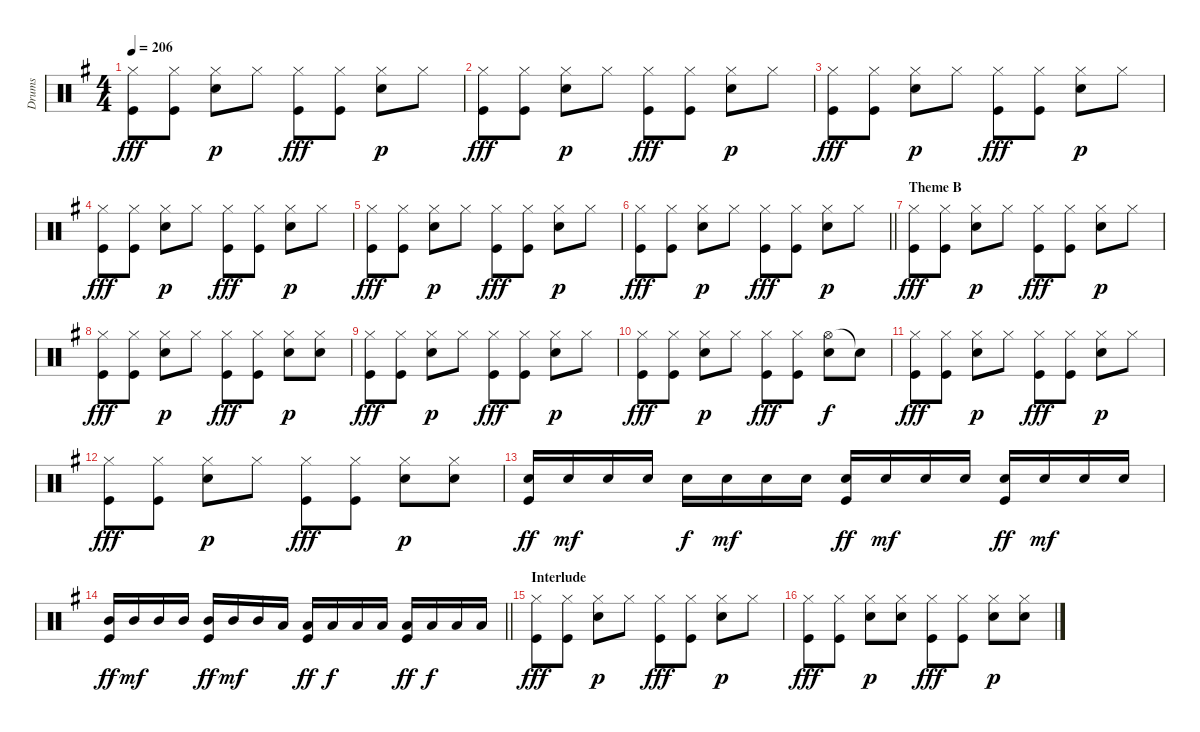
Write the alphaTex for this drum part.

\track ("Drums" "Drums") {instrument percussion}
\staff {score}
\articulation defaults
\ts (4 4)
\tempo 206
\clef neutral
\ks g
("Hi-Hat (closed)" "Kick (hit)").8{dy fff} ("Hi-Hat (closed)" "Kick (hit)").8 ("Hi-Hat (closed)" "Snare (hit) 2").8{dy p} "Hi-Hat (closed)".8 ("Hi-Hat (closed)" "Kick (hit)").8{dy fff} ("Hi-Hat (closed)" "Kick (hit)").8 ("Hi-Hat (closed)" "Snare (hit) 2").8{dy p} "Hi-Hat (closed)".8 |
("Hi-Hat (closed)" "Kick (hit)").8{dy fff} ("Hi-Hat (closed)" "Kick (hit)").8 ("Hi-Hat (closed)" "Snare (hit) 2").8{dy p} "Hi-Hat (closed)".8 ("Hi-Hat (closed)" "Kick (hit)").8{dy fff} ("Hi-Hat (closed)" "Kick (hit)").8 ("Hi-Hat (closed)" "Snare (hit) 2").8{dy p} "Hi-Hat (closed)".8 |
("Hi-Hat (closed)" "Kick (hit)").8{dy fff} ("Hi-Hat (closed)" "Kick (hit)").8 ("Hi-Hat (closed)" "Snare (hit) 2").8{dy p} "Hi-Hat (closed)".8 ("Hi-Hat (closed)" "Kick (hit)").8{dy fff} ("Hi-Hat (closed)" "Kick (hit)").8 ("Hi-Hat (closed)" "Snare (hit) 2").8{dy p} "Hi-Hat (closed)".8 |
("Hi-Hat (closed)" "Kick (hit)").8{dy fff} ("Hi-Hat (closed)" "Kick (hit)").8 ("Hi-Hat (closed)" "Snare (hit) 2").8{dy p} "Hi-Hat (closed)".8 ("Hi-Hat (closed)" "Kick (hit)").8{dy fff} ("Hi-Hat (closed)" "Kick (hit)").8 ("Hi-Hat (closed)" "Snare (hit) 2").8{dy p} "Hi-Hat (closed)".8 |
("Hi-Hat (closed)" "Kick (hit)").8{dy fff} ("Hi-Hat (closed)" "Kick (hit)").8 ("Hi-Hat (closed)" "Snare (hit) 2").8{dy p} "Hi-Hat (closed)".8 ("Hi-Hat (closed)" "Kick (hit)").8{dy fff} ("Hi-Hat (closed)" "Kick (hit)").8 ("Hi-Hat (closed)" "Snare (hit) 2").8{dy p} "Hi-Hat (closed)".8 |
\barLineRight lightlight
("Hi-Hat (closed)" "Kick (hit)").8{dy fff} ("Hi-Hat (closed)" "Kick (hit)").8 ("Hi-Hat (closed)" "Snare (hit) 2").8{dy p} "Hi-Hat (closed)".8 ("Hi-Hat (closed)" "Kick (hit)").8{dy fff} ("Hi-Hat (closed)" "Kick (hit)").8 ("Hi-Hat (closed)" "Snare (hit) 2").8{dy p} "Hi-Hat (closed)".8 |
\section ("" "Theme B")
("Hi-Hat (closed)" "Kick (hit)").8{dy fff} ("Hi-Hat (closed)" "Kick (hit)").8 ("Hi-Hat (closed)" "Snare (hit) 2").8{dy p} "Hi-Hat (closed)".8 ("Hi-Hat (closed)" "Kick (hit)").8{dy fff} ("Hi-Hat (closed)" "Kick (hit)").8 ("Hi-Hat (closed)" "Snare (hit) 2").8{dy p} "Hi-Hat (closed)".8 |
("Hi-Hat (closed)" "Kick (hit)").8{dy fff} ("Hi-Hat (closed)" "Kick (hit)").8 ("Hi-Hat (closed)" "Snare (hit) 2").8{dy p} "Hi-Hat (closed)".8 ("Hi-Hat (closed)" "Kick (hit)").8{dy fff} ("Hi-Hat (closed)" "Kick (hit)").8 ("Hi-Hat (closed)" "Snare (hit) 2").8{dy p} ("Hi-Hat (closed)" "Snare (hit) 2").8 |
("Hi-Hat (closed)" "Kick (hit)").8{dy fff} ("Hi-Hat (closed)" "Kick (hit)").8 ("Hi-Hat (closed)" "Snare (hit) 2").8{dy p} "Hi-Hat (closed)".8 ("Hi-Hat (closed)" "Kick (hit)").8{dy fff} ("Hi-Hat (closed)" "Kick (hit)").8 ("Hi-Hat (closed)" "Snare (hit) 2").8{dy p} "Hi-Hat (closed)".8 |
("Hi-Hat (closed)" "Kick (hit)").8{dy fff} ("Hi-Hat (closed)" "Kick (hit)").8 ("Hi-Hat (closed)" "Snare (hit) 2").8{dy p} "Hi-Hat (closed)".8 ("Hi-Hat (closed)" "Kick (hit)").8{dy fff} ("Hi-Hat (closed)" "Kick (hit)").8 ("Hi-Hat (open)" "Snare (hit) 2").8{dy f} "Snare (hit)"{t}.8 |
("Hi-Hat (closed)" "Kick (hit)").8{dy fff} ("Hi-Hat (closed)" "Kick (hit)").8 ("Hi-Hat (closed)" "Snare (hit) 2").8{dy p} "Hi-Hat (closed)".8 ("Hi-Hat (closed)" "Kick (hit)").8{dy fff} ("Hi-Hat (closed)" "Kick (hit)").8 ("Hi-Hat (closed)" "Snare (hit) 2").8{dy p} "Hi-Hat (closed)".8 |
("Hi-Hat (closed)" "Kick (hit)").8{dy fff} ("Hi-Hat (closed)" "Kick (hit)").8 ("Hi-Hat (closed)" "Snare (hit) 2").8{dy p} "Hi-Hat (closed)".8 ("Hi-Hat (closed)" "Kick (hit)").8{dy fff} ("Hi-Hat (closed)" "Kick (hit)").8 ("Hi-Hat (closed)" "Snare (hit) 2").8{dy p} ("Hi-Hat (closed)" "Snare (hit) 2").8 |
("Snare (hit) 2" "Kick (hit)").16{dy ff} "Snare (hit) 2".16{dy mf} "Snare (hit) 2".16 "Snare (hit) 2".16 "Snare (hit) 2".16{dy f} "Snare (hit) 2".16{dy mf} "Snare (hit) 2".16 "Snare (hit) 2".16 ("Snare (hit) 2" "Kick (hit)").16{dy ff} "Snare (hit) 2".16{dy mf} "Snare (hit) 2".16 "Snare (hit) 2".16 ("Snare (hit) 2" "Kick (hit)").16{dy ff} "Snare (hit) 2".16{dy mf} "Snare (hit) 2".16 "Snare (hit) 2".16 |
\barLineRight lightlight
("Mid Tom (hit)" "Kick (hit)").16{dy ff} "Mid Tom (hit)".16{dy mf} "Mid Tom (hit)".16 "Mid Tom (hit)".16 ("Mid Tom (hit)" "Kick (hit)").16{dy ff} "Mid Tom (hit)".16{dy mf} "Mid Tom (hit)".16 "Low Tom (hit)".16 ("Low Tom (hit)" "Kick (hit)").16{dy ff} "Low Tom (hit)".16{dy f} "Low Tom (hit)".16 "Low Tom (hit)".16 ("Low Tom (hit)" "Kick (hit)").16{dy ff} "Low Tom (hit)".16{dy f} "Low Tom (hit)".16 "Low Tom (hit)".16 |
\section ("" "Interlude")
("Hi-Hat (closed)" "Kick (hit)").8{dy fff} ("Hi-Hat (closed)" "Kick (hit)").8 ("Hi-Hat (closed)" "Snare (hit) 2").8{dy p} "Hi-Hat (closed)".8 ("Hi-Hat (closed)" "Kick (hit)").8{dy fff} ("Hi-Hat (closed)" "Kick (hit)").8 ("Hi-Hat (closed)" "Snare (hit) 2").8{dy p} "Hi-Hat (closed)".8 |
("Hi-Hat (closed)" "Kick (hit)").8{dy fff} ("Hi-Hat (closed)" "Kick (hit)").8 ("Hi-Hat (closed)" "Snare (hit) 2").8{dy p} ("Hi-Hat (closed)" "Snare (hit) 2").8 ("Hi-Hat (closed)" "Kick (hit)").8{dy fff} ("Hi-Hat (closed)" "Kick (hit)").8 ("Hi-Hat (closed)" "Snare (hit) 2").8{dy p} ("Hi-Hat (closed)" "Snare (hit) 2").8
